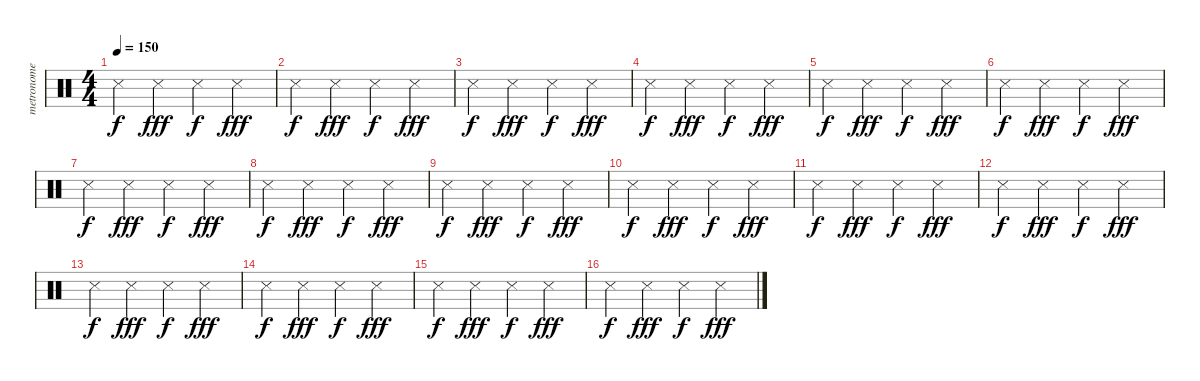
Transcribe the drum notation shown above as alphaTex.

\track ("metronome" "metronome") {instrument percussion}
\staff {score}
\articulation defaults
\ts (4 4)
\tempo 150
\clef neutral
\ks c "Snare (side stick) 3".4{dy f} "Snare (side stick) 3".4{dy fff} "Snare (side stick) 3".4{dy f} "Snare (side stick) 3".4{dy fff}
|
"Snare (side stick) 3".4{dy f} "Snare (side stick) 3".4{dy fff} "Snare (side stick) 3".4{dy f} "Snare (side stick) 3".4{dy fff} |
"Snare (side stick) 3".4{dy f} "Snare (side stick) 3".4{dy fff} "Snare (side stick) 3".4{dy f} "Snare (side stick) 3".4{dy fff} |
"Snare (side stick) 3".4{dy f} "Snare (side stick) 3".4{dy fff} "Snare (side stick) 3".4{dy f} "Snare (side stick) 3".4{dy fff} |
"Snare (side stick) 3".4{dy f} "Snare (side stick) 3".4{dy fff} "Snare (side stick) 3".4{dy f} "Snare (side stick) 3".4{dy fff} |
"Snare (side stick) 3".4{dy f} "Snare (side stick) 3".4{dy fff} "Snare (side stick) 3".4{dy f} "Snare (side stick) 3".4{dy fff} |
"Snare (side stick) 3".4{dy f} "Snare (side stick) 3".4{dy fff} "Snare (side stick) 3".4{dy f} "Snare (side stick) 3".4{dy fff} |
"Snare (side stick) 3".4{dy f} "Snare (side stick) 3".4{dy fff} "Snare (side stick) 3".4{dy f} "Snare (side stick) 3".4{dy fff} |
"Snare (side stick) 3".4{dy f} "Snare (side stick) 3".4{dy fff} "Snare (side stick) 3".4{dy f} "Snare (side stick) 3".4{dy fff} |
"Snare (side stick) 3".4{dy f} "Snare (side stick) 3".4{dy fff} "Snare (side stick) 3".4{dy f} "Snare (side stick) 3".4{dy fff} |
"Snare (side stick) 3".4{dy f} "Snare (side stick) 3".4{dy fff} "Snare (side stick) 3".4{dy f} "Snare (side stick) 3".4{dy fff} |
"Snare (side stick) 3".4{dy f} "Snare (side stick) 3".4{dy fff} "Snare (side stick) 3".4{dy f} "Snare (side stick) 3".4{dy fff} |
"Snare (side stick) 3".4{dy f} "Snare (side stick) 3".4{dy fff} "Snare (side stick) 3".4{dy f} "Snare (side stick) 3".4{dy fff} |
"Snare (side stick) 3".4{dy f} "Snare (side stick) 3".4{dy fff} "Snare (side stick) 3".4{dy f} "Snare (side stick) 3".4{dy fff} |
"Snare (side stick) 3".4{dy f} "Snare (side stick) 3".4{dy fff} "Snare (side stick) 3".4{dy f} "Snare (side stick) 3".4{dy fff} |
"Snare (side stick) 3".4{dy f} "Snare (side stick) 3".4{dy fff} "Snare (side stick) 3".4{dy f} "Snare (side stick) 3".4{dy fff}
